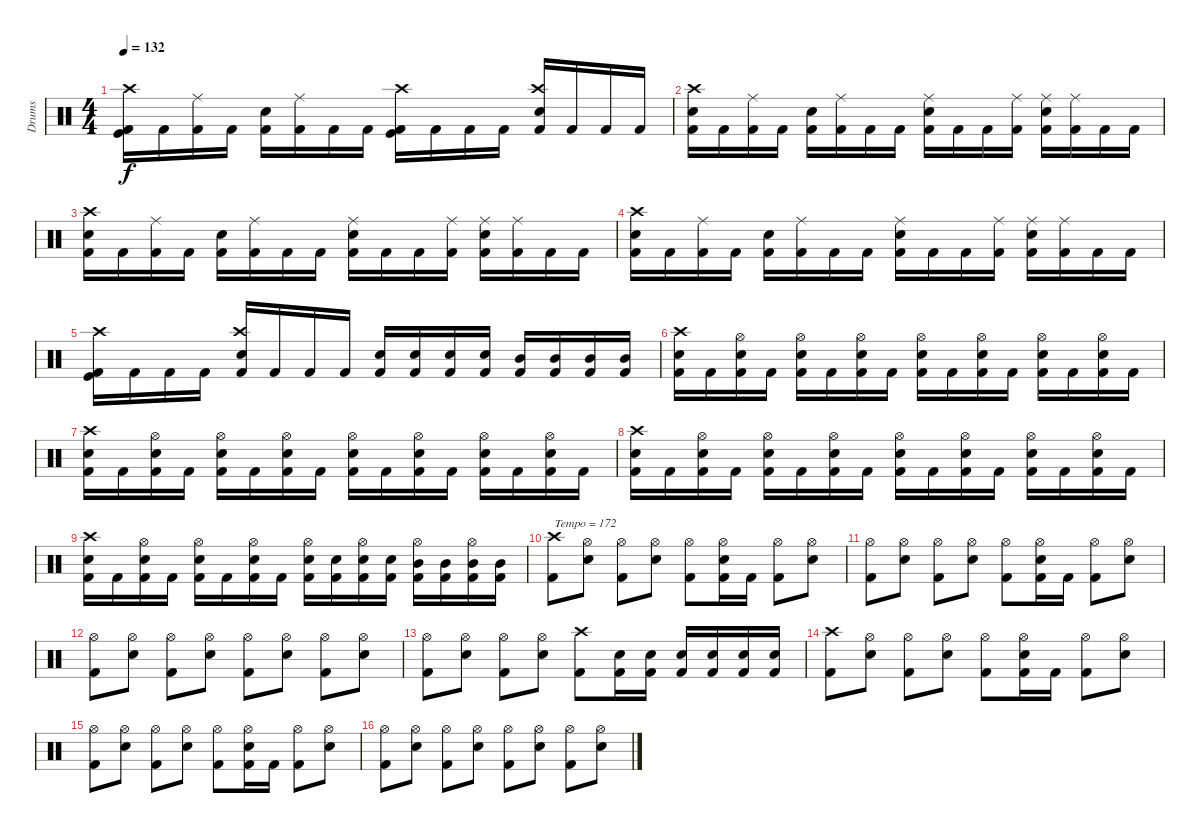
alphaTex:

\track ("Drums" "Drums") {instrument percussion}
\staff {score}
\articulation defaults
\ts (4 4)
\tempo 132
\clef neutral
\ks c
("Kick (hit) 2" "Kick (hit)" "Crash high (hit)").16{dy f} "Kick (hit) 2".16 ("Kick (hit) 2" "Ride (middle)").16 "Kick (hit) 2".16 ("Kick (hit) 2" "Snare (hit) 2").16 ("Kick (hit) 2" "Ride (middle)").16 "Kick (hit) 2".16 "Kick (hit) 2".16 ("Kick (hit) 2" "Kick (hit)" "Crash high (hit)").16 "Kick (hit) 2".16 "Kick (hit) 2".16 "Kick (hit) 2".16 ("Kick (hit) 2" "Snare (hit) 2" "Crash high (hit)").16 "Kick (hit) 2".16 "Kick (hit) 2".16 "Kick (hit) 2".16 |
("Kick (hit) 2" "Snare (hit) 2" "Crash high (hit)").16 "Kick (hit) 2".16 ("Kick (hit) 2" "Ride (middle)").16 "Kick (hit) 2".16 ("Kick (hit) 2" "Snare (hit) 2").16 ("Kick (hit) 2" "Ride (middle)").16 "Kick (hit) 2".16 "Kick (hit) 2".16 ("Kick (hit) 2" "Snare (hit) 2" "Ride (middle)").16 "Kick (hit) 2".16 "Kick (hit) 2".16 ("Kick (hit) 2" "Ride (middle)").16 ("Kick (hit) 2" "Snare (hit) 2" "Ride (middle)").16 ("Kick (hit) 2" "Ride (middle)").16 "Kick (hit) 2".16 "Kick (hit) 2".16 |
("Kick (hit) 2" "Snare (hit) 2" "Crash high (hit)").16 "Kick (hit) 2".16 ("Kick (hit) 2" "Ride (middle)").16 "Kick (hit) 2".16 ("Kick (hit) 2" "Snare (hit) 2").16 ("Kick (hit) 2" "Ride (middle)").16 "Kick (hit) 2".16 "Kick (hit) 2".16 ("Kick (hit) 2" "Snare (hit) 2" "Ride (middle)").16 "Kick (hit) 2".16 "Kick (hit) 2".16 ("Kick (hit) 2" "Ride (middle)").16 ("Kick (hit) 2" "Snare (hit) 2" "Ride (middle)").16 ("Kick (hit) 2" "Ride (middle)").16 "Kick (hit) 2".16 "Kick (hit) 2".16 |
("Kick (hit) 2" "Snare (hit) 2" "Crash high (hit)").16 "Kick (hit) 2".16 ("Kick (hit) 2" "Ride (middle)").16 "Kick (hit) 2".16 ("Kick (hit) 2" "Snare (hit) 2").16 ("Kick (hit) 2" "Ride (middle)").16 "Kick (hit) 2".16 "Kick (hit) 2".16 ("Kick (hit) 2" "Snare (hit) 2" "Ride (middle)").16 "Kick (hit) 2".16 "Kick (hit) 2".16 ("Kick (hit) 2" "Ride (middle)").16 ("Kick (hit) 2" "Snare (hit) 2" "Ride (middle)").16 ("Kick (hit) 2" "Ride (middle)").16 "Kick (hit) 2".16 "Kick (hit) 2".16 |
("Kick (hit) 2" "Kick (hit)" "Crash high (hit)").16 "Kick (hit) 2".16 "Kick (hit) 2".16 "Kick (hit) 2".16 ("Kick (hit) 2" "Snare (hit) 2" "Crash high (hit)").16 "Kick (hit) 2".16 "Kick (hit) 2".16 "Kick (hit) 2".16 ("Kick (hit) 2" "Snare (hit) 2").16 ("Kick (hit) 2" "Snare (hit) 2").16 ("Kick (hit) 2" "Snare (hit) 2").16 ("Kick (hit) 2" "Snare (hit) 2").16 ("Kick (hit) 2" "Mid Tom (hit)").16 ("Kick (hit) 2" "Mid Tom (hit)").16 ("Kick (hit) 2" "Mid Tom (hit)").16 ("Kick (hit) 2" "Mid Tom (hit)").16 |
("Kick (hit) 2" "Snare (hit) 2" "Crash high (hit)").16 "Kick (hit) 2".16 ("Kick (hit) 2" "Snare (hit) 2" "Hi-Hat (open)").16 "Kick (hit) 2".16 ("Kick (hit) 2" "Snare (hit) 2" "Hi-Hat (open)").16 "Kick (hit) 2".16 ("Kick (hit) 2" "Snare (hit) 2" "Hi-Hat (open)").16 "Kick (hit) 2".16 ("Kick (hit) 2" "Snare (hit) 2" "Hi-Hat (open)").16 "Kick (hit) 2".16 ("Kick (hit) 2" "Snare (hit) 2" "Hi-Hat (open)").16 "Kick (hit) 2".16 ("Kick (hit) 2" "Snare (hit) 2" "Hi-Hat (open)").16 "Kick (hit) 2".16 ("Kick (hit) 2" "Snare (hit) 2" "Hi-Hat (open)").16 "Kick (hit) 2".16 |
("Kick (hit) 2" "Snare (hit) 2" "Crash high (hit)").16 "Kick (hit) 2".16 ("Kick (hit) 2" "Snare (hit) 2" "Hi-Hat (open)").16 "Kick (hit) 2".16 ("Kick (hit) 2" "Snare (hit) 2" "Hi-Hat (open)").16 "Kick (hit) 2".16 ("Kick (hit) 2" "Snare (hit) 2" "Hi-Hat (open)").16 "Kick (hit) 2".16 ("Kick (hit) 2" "Snare (hit) 2" "Hi-Hat (open)").16 "Kick (hit) 2".16 ("Kick (hit) 2" "Snare (hit) 2" "Hi-Hat (open)").16 "Kick (hit) 2".16 ("Kick (hit) 2" "Snare (hit) 2" "Hi-Hat (open)").16 "Kick (hit) 2".16 ("Kick (hit) 2" "Snare (hit) 2" "Hi-Hat (open)").16 "Kick (hit) 2".16 |
("Kick (hit) 2" "Snare (hit) 2" "Crash high (hit)").16 "Kick (hit) 2".16 ("Kick (hit) 2" "Snare (hit) 2" "Hi-Hat (open)").16 "Kick (hit) 2".16 ("Kick (hit) 2" "Snare (hit) 2" "Hi-Hat (open)").16 "Kick (hit) 2".16 ("Kick (hit) 2" "Snare (hit) 2" "Hi-Hat (open)").16 "Kick (hit) 2".16 ("Kick (hit) 2" "Snare (hit) 2" "Hi-Hat (open)").16 "Kick (hit) 2".16 ("Kick (hit) 2" "Snare (hit) 2" "Hi-Hat (open)").16 "Kick (hit) 2".16 ("Kick (hit) 2" "Snare (hit) 2" "Hi-Hat (open)").16 "Kick (hit) 2".16 ("Kick (hit) 2" "Snare (hit) 2" "Hi-Hat (open)").16 "Kick (hit) 2".16 |
("Kick (hit) 2" "Snare (hit) 2" "Crash high (hit)").16 "Kick (hit) 2".16 ("Kick (hit) 2" "Snare (hit) 2" "Hi-Hat (open)").16 "Kick (hit) 2".16 ("Kick (hit) 2" "Snare (hit) 2" "Hi-Hat (open)").16 "Kick (hit) 2".16 ("Kick (hit) 2" "Snare (hit) 2" "Hi-Hat (open)").16 "Kick (hit) 2".16 ("Kick (hit) 2" "Snare (hit) 2" "Hi-Hat (open)").16 ("Kick (hit) 2" "Snare (hit) 2").16 ("Kick (hit) 2" "Snare (hit) 2" "Hi-Hat (open)").16 ("Kick (hit) 2" "Snare (hit) 2").16 ("Kick (hit) 2" "Mid Tom (hit)" "Hi-Hat (open)").16 ("Kick (hit) 2" "Mid Tom (hit)").16 ("Kick (hit) 2" "Mid Tom (hit)" "Hi-Hat (open)").16 ("Kick (hit) 2" "Mid Tom (hit)").16 |
("Kick (hit) 2" "Crash high (hit)").8{txt "Tempo = 172"} ("Snare (hit) 2" "Hi-Hat (open)").8 ("Kick (hit) 2" "Hi-Hat (open)").8 ("Snare (hit) 2" "Hi-Hat (open)").8 ("Kick (hit) 2" "Hi-Hat (open)").8 ("Kick (hit) 2" "Snare (hit) 2" "Hi-Hat (open)").16 "Kick (hit) 2".16 ("Kick (hit) 2" "Hi-Hat (open)").8 ("Snare (hit) 2" "Hi-Hat (open)").8 |
("Kick (hit) 2" "Hi-Hat (open)").8 ("Snare (hit) 2" "Hi-Hat (open)").8 ("Kick (hit) 2" "Hi-Hat (open)").8 ("Snare (hit) 2" "Hi-Hat (open)").8 ("Kick (hit) 2" "Hi-Hat (open)").8 ("Kick (hit) 2" "Snare (hit) 2" "Hi-Hat (open)").16 "Kick (hit) 2".16 ("Kick (hit) 2" "Hi-Hat (open)").8 ("Snare (hit) 2" "Hi-Hat (open)").8 |
("Kick (hit) 2" "Hi-Hat (open)").8 ("Snare (hit) 2" "Hi-Hat (open)").8 ("Kick (hit) 2" "Hi-Hat (open)").8 ("Snare (hit) 2" "Hi-Hat (open)").8 ("Kick (hit) 2" "Hi-Hat (open)").8 ("Snare (hit) 2" "Hi-Hat (open)").8 ("Kick (hit) 2" "Hi-Hat (open)").8 ("Snare (hit) 2" "Hi-Hat (open)").8 |
("Kick (hit) 2" "Hi-Hat (open)").8 ("Snare (hit) 2" "Hi-Hat (open)").8 ("Kick (hit) 2" "Hi-Hat (open)").8 ("Snare (hit) 2" "Hi-Hat (open)").8 ("Kick (hit) 2" "Crash high (hit)").8 ("Kick (hit) 2" "Snare (hit) 2").16 ("Kick (hit) 2" "Snare (hit) 2").16 ("Kick (hit) 2" "Snare (hit) 2").16 ("Kick (hit) 2" "Snare (hit) 2").16 ("Kick (hit) 2" "Snare (hit) 2").16 ("Kick (hit) 2" "Snare (hit) 2").16 |
("Kick (hit) 2" "Crash high (hit)").8 ("Snare (hit) 2" "Hi-Hat (open)").8 ("Kick (hit) 2" "Hi-Hat (open)").8 ("Snare (hit) 2" "Hi-Hat (open)").8 ("Kick (hit) 2" "Hi-Hat (open)").8 ("Kick (hit) 2" "Snare (hit) 2" "Hi-Hat (open)").16 "Kick (hit) 2".16 ("Kick (hit) 2" "Hi-Hat (open)").8 ("Snare (hit) 2" "Hi-Hat (open)").8 |
("Kick (hit) 2" "Hi-Hat (open)").8 ("Snare (hit) 2" "Hi-Hat (open)").8 ("Kick (hit) 2" "Hi-Hat (open)").8 ("Snare (hit) 2" "Hi-Hat (open)").8 ("Kick (hit) 2" "Hi-Hat (open)").8 ("Kick (hit) 2" "Snare (hit) 2" "Hi-Hat (open)").16 "Kick (hit) 2".16 ("Kick (hit) 2" "Hi-Hat (open)").8 ("Snare (hit) 2" "Hi-Hat (open)").8 |
("Kick (hit) 2" "Hi-Hat (open)").8 ("Snare (hit) 2" "Hi-Hat (open)").8 ("Kick (hit) 2" "Hi-Hat (open)").8 ("Snare (hit) 2" "Hi-Hat (open)").8 ("Kick (hit) 2" "Hi-Hat (open)").8 ("Snare (hit) 2" "Hi-Hat (open)").8 ("Kick (hit) 2" "Hi-Hat (open)").8 ("Snare (hit) 2" "Hi-Hat (open)").8
